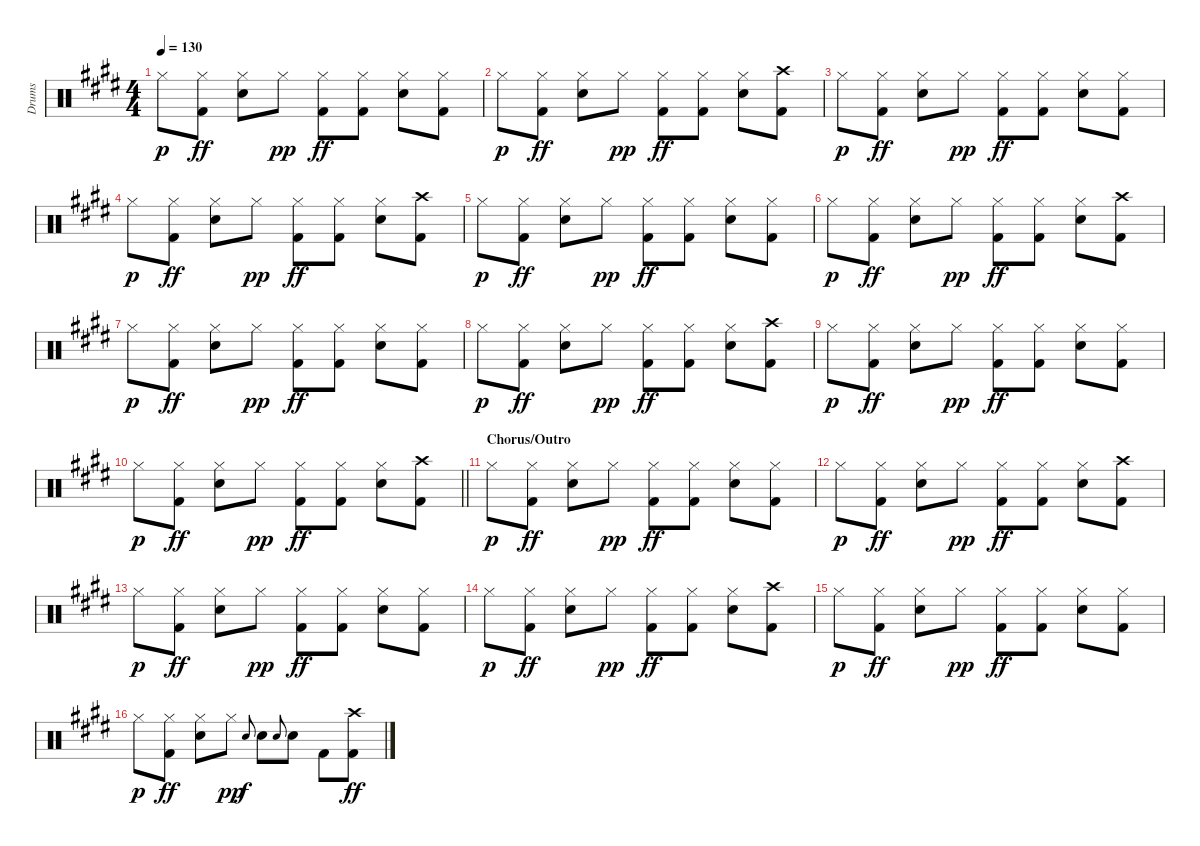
\track ("Drums" "Drums") {instrument percussion}
\staff {score}
\articulation defaults
\ts (4 4)
\tempo 130
\clef neutral
\ks e "Hi-Hat (closed)".8{dy p}
("Hi-Hat (closed)" "Kick (hit) 2").8{dy ff} ("Hi-Hat (closed)" "Electric Snare (hit)").8 "Hi-Hat (closed)".8{dy pp} ("Hi-Hat (closed)" "Kick (hit) 2").8{dy ff} ("Hi-Hat (closed)" "Kick (hit) 2").8 ("Hi-Hat (closed)" "Electric Snare (hit)").8 ("Hi-Hat (closed)" "Kick (hit) 2").8 |
\ks c#minor "Hi-Hat (closed)".8{dy p}
("Hi-Hat (closed)" "Kick (hit) 2").8{dy ff} ("Hi-Hat (closed)" "Electric Snare (hit)").8 "Hi-Hat (closed)".8{dy pp} ("Hi-Hat (closed)" "Kick (hit) 2").8{dy ff} ("Hi-Hat (closed)" "Kick (hit) 2").8 ("Hi-Hat (closed)" "Electric Snare (hit)").8 ("Crash high (hit)" "Kick (hit) 2").8 |
\ks e "Hi-Hat (closed)".8{dy p}
("Hi-Hat (closed)" "Kick (hit) 2").8{dy ff} ("Hi-Hat (closed)" "Electric Snare (hit)").8 "Hi-Hat (closed)".8{dy pp} ("Hi-Hat (closed)" "Kick (hit) 2").8{dy ff} ("Hi-Hat (closed)" "Kick (hit) 2").8 ("Hi-Hat (closed)" "Electric Snare (hit)").8 ("Hi-Hat (closed)" "Kick (hit) 2").8 |
\ks c#minor "Hi-Hat (closed)".8{dy p}
("Hi-Hat (closed)" "Kick (hit) 2").8{dy ff} ("Hi-Hat (closed)" "Electric Snare (hit)").8 "Hi-Hat (closed)".8{dy pp} ("Hi-Hat (closed)" "Kick (hit) 2").8{dy ff} ("Hi-Hat (closed)" "Kick (hit) 2").8 ("Hi-Hat (closed)" "Electric Snare (hit)").8 ("Crash high (hit)" "Kick (hit) 2").8 |
\ks e "Hi-Hat (closed)".8{dy p}
("Hi-Hat (closed)" "Kick (hit) 2").8{dy ff} ("Hi-Hat (closed)" "Electric Snare (hit)").8 "Hi-Hat (closed)".8{dy pp} ("Hi-Hat (closed)" "Kick (hit) 2").8{dy ff} ("Hi-Hat (closed)" "Kick (hit) 2").8 ("Hi-Hat (closed)" "Electric Snare (hit)").8 ("Hi-Hat (closed)" "Kick (hit) 2").8 |
\ks c#minor "Hi-Hat (closed)".8{dy p}
("Hi-Hat (closed)" "Kick (hit) 2").8{dy ff} ("Hi-Hat (closed)" "Electric Snare (hit)").8 "Hi-Hat (closed)".8{dy pp} ("Hi-Hat (closed)" "Kick (hit) 2").8{dy ff} ("Hi-Hat (closed)" "Kick (hit) 2").8 ("Hi-Hat (closed)" "Electric Snare (hit)").8 ("Crash high (hit)" "Kick (hit) 2").8 |
\ks e "Hi-Hat (closed)".8{dy p}
("Hi-Hat (closed)" "Kick (hit) 2").8{dy ff} ("Hi-Hat (closed)" "Electric Snare (hit)").8 "Hi-Hat (closed)".8{dy pp} ("Hi-Hat (closed)" "Kick (hit) 2").8{dy ff} ("Hi-Hat (closed)" "Kick (hit) 2").8 ("Hi-Hat (closed)" "Electric Snare (hit)").8 ("Hi-Hat (closed)" "Kick (hit) 2").8 |
\ks c#minor "Hi-Hat (closed)".8{dy p}
("Hi-Hat (closed)" "Kick (hit) 2").8{dy ff} ("Hi-Hat (closed)" "Electric Snare (hit)").8 "Hi-Hat (closed)".8{dy pp} ("Hi-Hat (closed)" "Kick (hit) 2").8{dy ff} ("Hi-Hat (closed)" "Kick (hit) 2").8 ("Hi-Hat (closed)" "Electric Snare (hit)").8 ("Crash high (hit)" "Kick (hit) 2").8 |
\ks e "Hi-Hat (closed)".8{dy p}
("Hi-Hat (closed)" "Kick (hit) 2").8{dy ff} ("Hi-Hat (closed)" "Electric Snare (hit)").8 "Hi-Hat (closed)".8{dy pp} ("Hi-Hat (closed)" "Kick (hit) 2").8{dy ff} ("Hi-Hat (closed)" "Kick (hit) 2").8 ("Hi-Hat (closed)" "Electric Snare (hit)").8 ("Hi-Hat (closed)" "Kick (hit) 2").8 |
\barLineRight lightlight
\ks c#minor "Hi-Hat (closed)".8{dy p}
("Hi-Hat (closed)" "Kick (hit) 2").8{dy ff} ("Hi-Hat (closed)" "Electric Snare (hit)").8 "Hi-Hat (closed)".8{dy pp} ("Hi-Hat (closed)" "Kick (hit) 2").8{dy ff} ("Hi-Hat (closed)" "Kick (hit) 2").8 ("Hi-Hat (closed)" "Electric Snare (hit)").8 ("Crash high (hit)" "Kick (hit) 2").8 |
\section ("" "Chorus/Outro")
\ks e "Hi-Hat (closed)".8{dy p}
("Hi-Hat (closed)" "Kick (hit) 2").8{dy ff} ("Hi-Hat (closed)" "Electric Snare (hit)").8 "Hi-Hat (closed)".8{dy pp} ("Hi-Hat (closed)" "Kick (hit) 2").8{dy ff} ("Hi-Hat (closed)" "Kick (hit) 2").8 ("Hi-Hat (closed)" "Electric Snare (hit)").8 ("Hi-Hat (closed)" "Kick (hit) 2").8 |
\ks c#minor "Hi-Hat (closed)".8{dy p}
("Hi-Hat (closed)" "Kick (hit) 2").8{dy ff} ("Hi-Hat (closed)" "Electric Snare (hit)").8 "Hi-Hat (closed)".8{dy pp} ("Hi-Hat (closed)" "Kick (hit) 2").8{dy ff} ("Hi-Hat (closed)" "Kick (hit) 2").8 ("Hi-Hat (closed)" "Electric Snare (hit)").8 ("Crash high (hit)" "Kick (hit) 2").8 |
\ks e "Hi-Hat (closed)".8{dy p}
("Hi-Hat (closed)" "Kick (hit) 2").8{dy ff} ("Hi-Hat (closed)" "Electric Snare (hit)").8 "Hi-Hat (closed)".8{dy pp} ("Hi-Hat (closed)" "Kick (hit) 2").8{dy ff} ("Hi-Hat (closed)" "Kick (hit) 2").8 ("Hi-Hat (closed)" "Electric Snare (hit)").8 ("Hi-Hat (closed)" "Kick (hit) 2").8 |
\ks c#minor "Hi-Hat (closed)".8{dy p}
("Hi-Hat (closed)" "Kick (hit) 2").8{dy ff} ("Hi-Hat (closed)" "Electric Snare (hit)").8 "Hi-Hat (closed)".8{dy pp} ("Hi-Hat (closed)" "Kick (hit) 2").8{dy ff} ("Hi-Hat (closed)" "Kick (hit) 2").8 ("Hi-Hat (closed)" "Electric Snare (hit)").8 ("Crash high (hit)" "Kick (hit) 2").8 |
\ks e "Hi-Hat (closed)".8{dy p}
("Hi-Hat (closed)" "Kick (hit) 2").8{dy ff} ("Hi-Hat (closed)" "Electric Snare (hit)").8 "Hi-Hat (closed)".8{dy pp} ("Hi-Hat (closed)" "Kick (hit) 2").8{dy ff} ("Hi-Hat (closed)" "Kick (hit) 2").8 ("Hi-Hat (closed)" "Electric Snare (hit)").8 ("Hi-Hat (closed)" "Kick (hit) 2").8 |
\ks c#minor "Hi-Hat (closed)".8{dy p}
("Hi-Hat (closed)" "Kick (hit) 2").8{dy ff} ("Hi-Hat (closed)" "Electric Snare (hit)").8 "Hi-Hat (closed)".8{dy pp} "Electric Snare (hit)".8{gr onbeat dy f} "Electric Snare (hit)".8 "Electric Snare (hit)".8{gr onbeat} "Electric Snare (hit)".8 "Kick (hit) 2".8 ("Crash high (hit)" "Kick (hit) 2").8{dy ff}
